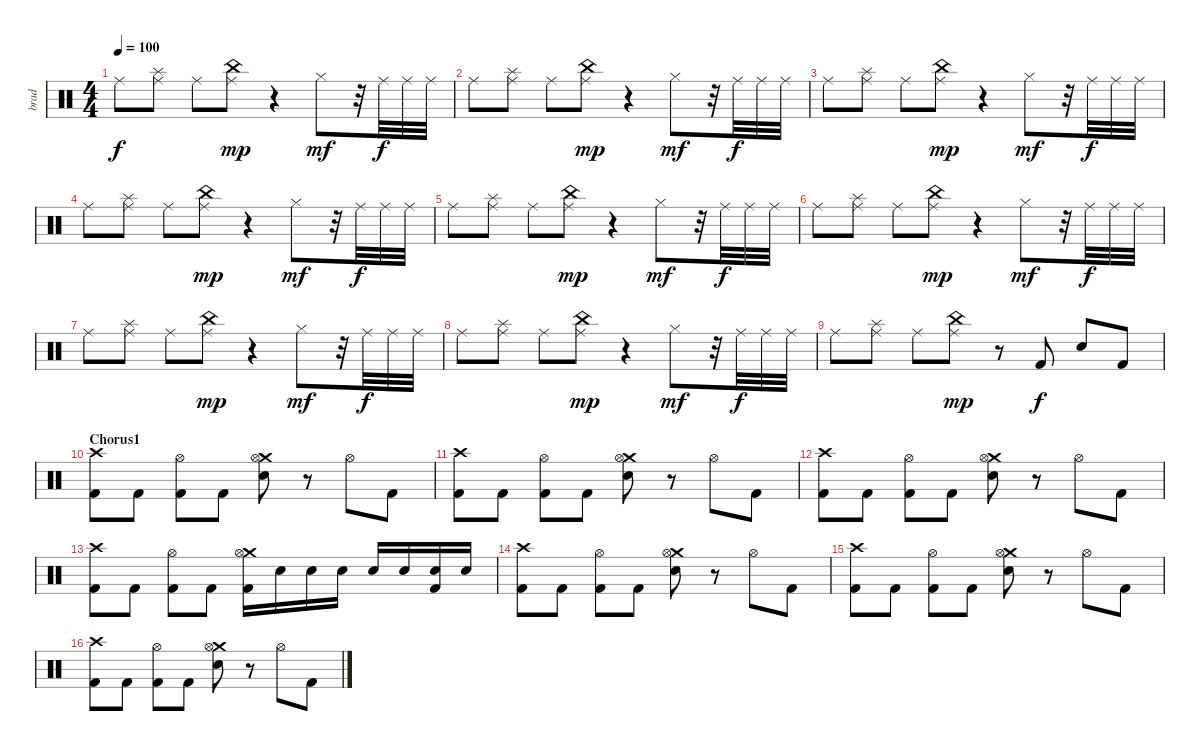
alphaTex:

\track ("brad" "brad") {instrument percussion}
\staff {score}
\articulation defaults
\ts (4 4)
\tempo 100
\clef neutral
\ks c "Ride (middle)".8{dy f}
("Splash (hit)" "Ride (middle)").8 "Ride (middle)".8 ("China (hit)" "Ride (middle)").8{dy mp} r.4 "Hi-Hat (closed)".8{dy mf} r.32 "Ride (middle)".32{dy f} "Ride (middle)".32 "Ride (middle)".32 |
"Ride (middle)".8 ("Splash (hit)" "Ride (middle)").8 "Ride (middle)".8 ("China (hit)" "Ride (middle)").8{dy mp} r.4 "Hi-Hat (closed)".8{dy mf} r.32 "Ride (middle)".32{dy f} "Ride (middle)".32 "Ride (middle)".32 |
"Ride (middle)".8 ("Splash (hit)" "Ride (middle)").8 "Ride (middle)".8 ("China (hit)" "Ride (middle)").8{dy mp} r.4 "Hi-Hat (closed)".8{dy mf} r.32 "Ride (middle)".32{dy f} "Ride (middle)".32 "Ride (middle)".32 |
"Ride (middle)".8 ("Splash (hit)" "Ride (middle)").8 "Ride (middle)".8 ("China (hit)" "Ride (middle)").8{dy mp} r.4 "Hi-Hat (closed)".8{dy mf} r.32 "Ride (middle)".32{dy f} "Ride (middle)".32 "Ride (middle)".32 |
"Ride (middle)".8 ("Splash (hit)" "Ride (middle)").8 "Ride (middle)".8 ("China (hit)" "Ride (middle)").8{dy mp} r.4 "Hi-Hat (closed)".8{dy mf} r.32 "Ride (middle)".32{dy f} "Ride (middle)".32 "Ride (middle)".32 |
"Ride (middle)".8 ("Splash (hit)" "Ride (middle)").8 "Ride (middle)".8 ("China (hit)" "Ride (middle)").8{dy mp} r.4 "Hi-Hat (closed)".8{dy mf} r.32 "Ride (middle)".32{dy f} "Ride (middle)".32 "Ride (middle)".32 |
"Ride (middle)".8 ("Splash (hit)" "Ride (middle)").8 "Ride (middle)".8 ("China (hit)" "Ride (middle)").8{dy mp} r.4 "Hi-Hat (closed)".8{dy mf} r.32 "Ride (middle)".32{dy f} "Ride (middle)".32 "Ride (middle)".32 |
"Ride (middle)".8 ("Splash (hit)" "Ride (middle)").8 "Ride (middle)".8 ("China (hit)" "Ride (middle)").8{dy mp} r.4 "Hi-Hat (closed)".8{dy mf} r.32 "Ride (middle)".32{dy f} "Ride (middle)".32 "Ride (middle)".32 |
"Ride (middle)".8 ("Splash (hit)" "Ride (middle)").8 "Ride (middle)".8 ("China (hit)" "Ride (middle)").8{dy mp} r.8 "Kick (hit) 2".8{dy f} "Electric Snare (hit)".8 "Kick (hit) 2".8 |
\section ("" "Chorus1")
("Crash high (hit)" "Kick (hit) 2").8 "Kick (hit) 2".8 ("Hi-Hat (open)" "Kick (hit) 2").8 "Kick (hit) 2".8 ("Crash medium (hit)" "Hi-Hat (open)" "Electric Snare (hit)").8 r.8 "Hi-Hat (open)".8 "Kick (hit) 2".8 |
("Crash high (hit)" "Kick (hit) 2").8 "Kick (hit) 2".8 ("Hi-Hat (open)" "Kick (hit) 2").8 "Kick (hit) 2".8 ("Crash medium (hit)" "Hi-Hat (open)" "Electric Snare (hit)").8 r.8 "Hi-Hat (open)".8 "Kick (hit) 2".8 |
("Crash high (hit)" "Kick (hit) 2").8 "Kick (hit) 2".8 ("Hi-Hat (open)" "Kick (hit) 2").8 "Kick (hit) 2".8 ("Crash medium (hit)" "Hi-Hat (open)" "Electric Snare (hit)").8 r.8 "Hi-Hat (open)".8 "Kick (hit) 2".8 |
("Crash high (hit)" "Kick (hit) 2").8 "Kick (hit) 2".8 ("Hi-Hat (open)" "Kick (hit) 2").8 "Kick (hit) 2".8 ("Crash medium (hit)" "Hi-Hat (open)" "Kick (hit) 2").16 "Electric Snare (hit)".16 "Electric Snare (hit)".16 "Electric Snare (hit)".16 "Electric Snare (hit)".16 "Electric Snare (hit)".16 ("Electric Snare (hit)" "Kick (hit) 2").16 "Electric Snare (hit)".16 |
("Crash high (hit)" "Kick (hit) 2").8 "Kick (hit) 2".8 ("Hi-Hat (open)" "Kick (hit) 2").8 "Kick (hit) 2".8 ("Crash medium (hit)" "Hi-Hat (open)" "Electric Snare (hit)").8 r.8 "Hi-Hat (open)".8 "Kick (hit) 2".8 |
("Crash high (hit)" "Kick (hit) 2").8 "Kick (hit) 2".8 ("Hi-Hat (open)" "Kick (hit) 2").8 "Kick (hit) 2".8 ("Crash medium (hit)" "Hi-Hat (open)" "Electric Snare (hit)").8 r.8 "Hi-Hat (open)".8 "Kick (hit) 2".8 |
("Crash high (hit)" "Kick (hit) 2").8 "Kick (hit) 2".8 ("Hi-Hat (open)" "Kick (hit) 2").8 "Kick (hit) 2".8 ("Crash medium (hit)" "Hi-Hat (open)" "Electric Snare (hit)").8 r.8 "Hi-Hat (open)".8 "Kick (hit) 2".8
